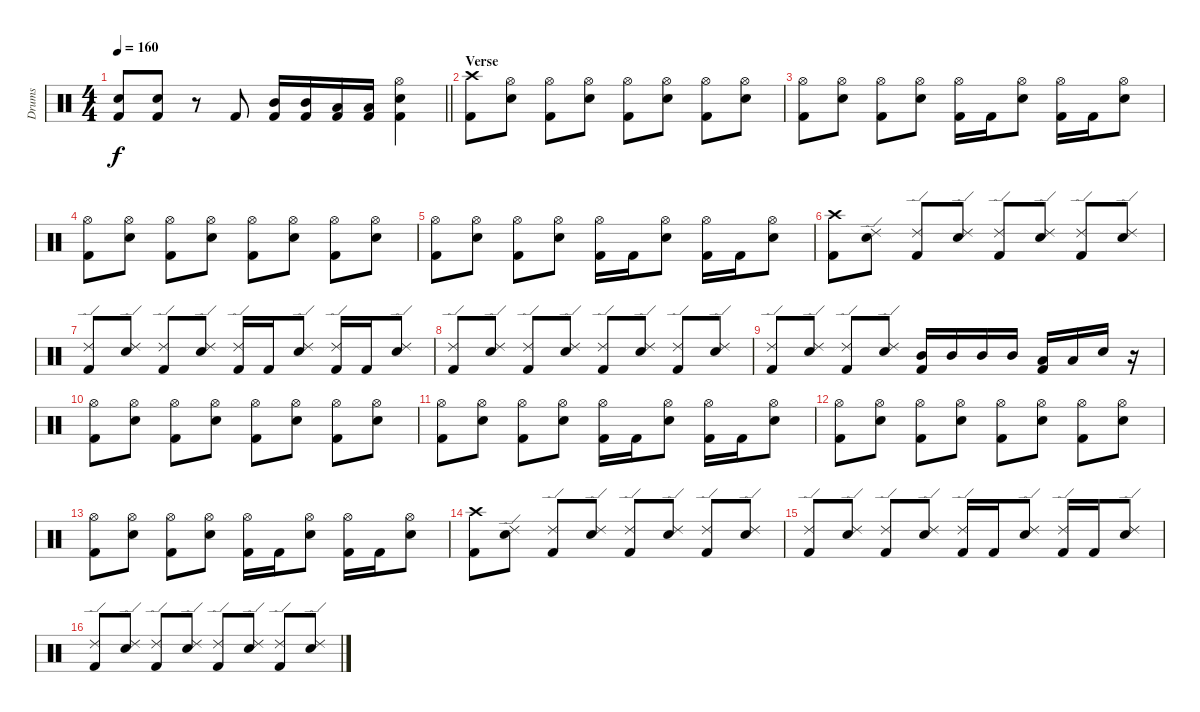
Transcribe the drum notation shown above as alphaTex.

\track ("Drums" "Drums") {instrument percussion}
\staff {score}
\articulation defaults
\ts (4 4)
\tempo 160
\clef neutral
\barLineRight lightlight
\ks c
("Electric Snare (hit)" "Kick (hit) 2").8{dy f} ("Electric Snare (hit)" "Kick (hit) 2").8 r.8 "Kick (hit) 2".8 ("Mid Tom (hit)" "Kick (hit) 2").16 ("Mid Tom (hit)" "Kick (hit) 2").16 ("Low Tom (hit)" "Kick (hit) 2").16 ("Low Tom (hit)" "Kick (hit) 2").16 ("Hi-Hat (open)" "Electric Snare (hit)" "Kick (hit) 2").4 |
\section ("" "Verse")
("Crash high (hit)" "Kick (hit) 2").8 ("Hi-Hat (open)" "Electric Snare (hit)").8 ("Hi-Hat (open)" "Kick (hit) 2").8 ("Hi-Hat (open)" "Electric Snare (hit)").8 ("Hi-Hat (open)" "Kick (hit) 2").8 ("Hi-Hat (open)" "Electric Snare (hit)").8 ("Hi-Hat (open)" "Kick (hit) 2").8 ("Hi-Hat (open)" "Electric Snare (hit)").8 |
("Hi-Hat (open)" "Kick (hit) 2").8 ("Hi-Hat (open)" "Electric Snare (hit)").8 ("Hi-Hat (open)" "Kick (hit) 2").8 ("Hi-Hat (open)" "Electric Snare (hit)").8 ("Hi-Hat (open)" "Kick (hit) 2").16 "Kick (hit) 2".16 ("Hi-Hat (open)" "Electric Snare (hit)").8 ("Hi-Hat (open)" "Kick (hit) 2").16 "Kick (hit) 2".16 ("Hi-Hat (open)" "Electric Snare (hit)").8 |
("Hi-Hat (open)" "Kick (hit) 2").8 ("Hi-Hat (open)" "Electric Snare (hit)").8 ("Hi-Hat (open)" "Kick (hit) 2").8 ("Hi-Hat (open)" "Electric Snare (hit)").8 ("Hi-Hat (open)" "Kick (hit) 2").8 ("Hi-Hat (open)" "Electric Snare (hit)").8 ("Hi-Hat (open)" "Kick (hit) 2").8 ("Hi-Hat (open)" "Electric Snare (hit)").8 |
("Hi-Hat (open)" "Kick (hit) 2").8 ("Hi-Hat (open)" "Electric Snare (hit)").8 ("Hi-Hat (open)" "Kick (hit) 2").8 ("Hi-Hat (open)" "Electric Snare (hit)").8 ("Hi-Hat (open)" "Kick (hit) 2").16 "Kick (hit) 2".16 ("Hi-Hat (open)" "Electric Snare (hit)").8 ("Hi-Hat (open)" "Kick (hit) 2").16 "Kick (hit) 2".16 ("Hi-Hat (open)" "Electric Snare (hit)").8 |
("Crash high (hit)" "Kick (hit) 2").8 ("Ride (edge) 2" "Electric Snare (hit)").8 ("Ride (edge) 2" "Kick (hit) 2").8 ("Ride (edge) 2" "Electric Snare (hit)").8 ("Ride (edge) 2" "Kick (hit) 2").8 ("Ride (edge) 2" "Electric Snare (hit)").8 ("Ride (edge) 2" "Kick (hit) 2").8 ("Ride (edge) 2" "Electric Snare (hit)").8 |
("Ride (edge) 2" "Kick (hit) 2").8 ("Ride (edge) 2" "Electric Snare (hit)").8 ("Ride (edge) 2" "Kick (hit) 2").8 ("Ride (edge) 2" "Electric Snare (hit)").8 ("Ride (edge) 2" "Kick (hit) 2").16 "Kick (hit) 2".16 ("Ride (edge) 2" "Electric Snare (hit)").8 ("Ride (edge) 2" "Kick (hit) 2").16 "Kick (hit) 2".16 ("Ride (edge) 2" "Electric Snare (hit)").8 |
("Ride (edge) 2" "Kick (hit) 2").8 ("Ride (edge) 2" "Electric Snare (hit)").8 ("Ride (edge) 2" "Kick (hit) 2").8 ("Ride (edge) 2" "Electric Snare (hit)").8 ("Ride (edge) 2" "Kick (hit) 2").8 ("Ride (edge) 2" "Electric Snare (hit)").8 ("Ride (edge) 2" "Kick (hit) 2").8 ("Ride (edge) 2" "Electric Snare (hit)").8 |
("Ride (edge) 2" "Kick (hit) 2").8 ("Ride (edge) 2" "Electric Snare (hit)").8 ("Ride (edge) 2" "Kick (hit) 2").8 ("Ride (edge) 2" "Electric Snare (hit)").8 ("Mid Tom (hit)" "Kick (hit) 2").16 "Mid Tom (hit)".16 "Mid Tom (hit)".16 "Mid Tom (hit)".16 ("Low Tom (hit)" "Kick (hit) 2").16 "Low Tom (hit)".16 "Electric Snare (hit)".16 r.16 |
("Hi-Hat (open)" "Kick (hit) 2").8 ("Hi-Hat (open)" "Electric Snare (hit)").8 ("Hi-Hat (open)" "Kick (hit) 2").8 ("Hi-Hat (open)" "Electric Snare (hit)").8 ("Hi-Hat (open)" "Kick (hit) 2").8 ("Hi-Hat (open)" "Electric Snare (hit)").8 ("Hi-Hat (open)" "Kick (hit) 2").8 ("Hi-Hat (open)" "Electric Snare (hit)").8 |
("Hi-Hat (open)" "Kick (hit) 2").8 ("Hi-Hat (open)" "Electric Snare (hit)").8 ("Hi-Hat (open)" "Kick (hit) 2").8 ("Hi-Hat (open)" "Electric Snare (hit)").8 ("Hi-Hat (open)" "Kick (hit) 2").16 "Kick (hit) 2".16 ("Hi-Hat (open)" "Electric Snare (hit)").8 ("Hi-Hat (open)" "Kick (hit) 2").16 "Kick (hit) 2".16 ("Hi-Hat (open)" "Electric Snare (hit)").8 |
("Hi-Hat (open)" "Kick (hit) 2").8 ("Hi-Hat (open)" "Electric Snare (hit)").8 ("Hi-Hat (open)" "Kick (hit) 2").8 ("Hi-Hat (open)" "Electric Snare (hit)").8 ("Hi-Hat (open)" "Kick (hit) 2").8 ("Hi-Hat (open)" "Electric Snare (hit)").8 ("Hi-Hat (open)" "Kick (hit) 2").8 ("Hi-Hat (open)" "Electric Snare (hit)").8 |
("Hi-Hat (open)" "Kick (hit) 2").8 ("Hi-Hat (open)" "Electric Snare (hit)").8 ("Hi-Hat (open)" "Kick (hit) 2").8 ("Hi-Hat (open)" "Electric Snare (hit)").8 ("Hi-Hat (open)" "Kick (hit) 2").16 "Kick (hit) 2".16 ("Hi-Hat (open)" "Electric Snare (hit)").8 ("Hi-Hat (open)" "Kick (hit) 2").16 "Kick (hit) 2".16 ("Hi-Hat (open)" "Electric Snare (hit)").8 |
("Crash high (hit)" "Kick (hit) 2").8 ("Ride (edge) 2" "Electric Snare (hit)").8 ("Ride (edge) 2" "Kick (hit) 2").8 ("Ride (edge) 2" "Electric Snare (hit)").8 ("Ride (edge) 2" "Kick (hit) 2").8 ("Ride (edge) 2" "Electric Snare (hit)").8 ("Ride (edge) 2" "Kick (hit) 2").8 ("Ride (edge) 2" "Electric Snare (hit)").8 |
("Ride (edge) 2" "Kick (hit) 2").8 ("Ride (edge) 2" "Electric Snare (hit)").8 ("Ride (edge) 2" "Kick (hit) 2").8 ("Ride (edge) 2" "Electric Snare (hit)").8 ("Ride (edge) 2" "Kick (hit) 2").16 "Kick (hit) 2".16 ("Ride (edge) 2" "Electric Snare (hit)").8 ("Ride (edge) 2" "Kick (hit) 2").16 "Kick (hit) 2".16 ("Ride (edge) 2" "Electric Snare (hit)").8 |
("Ride (edge) 2" "Kick (hit) 2").8 ("Ride (edge) 2" "Electric Snare (hit)").8 ("Ride (edge) 2" "Kick (hit) 2").8 ("Ride (edge) 2" "Electric Snare (hit)").8 ("Ride (edge) 2" "Kick (hit) 2").8 ("Ride (edge) 2" "Electric Snare (hit)").8 ("Ride (edge) 2" "Kick (hit) 2").8 ("Ride (edge) 2" "Electric Snare (hit)").8
